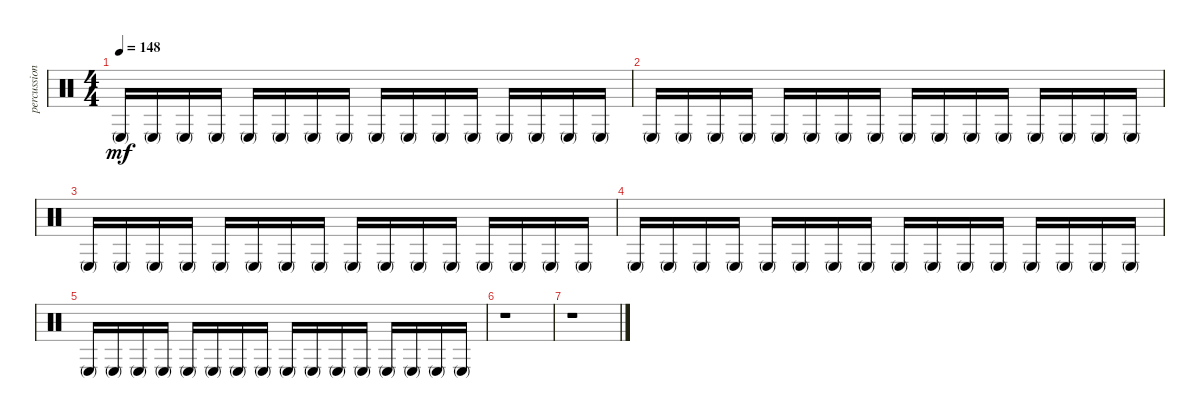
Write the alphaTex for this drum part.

\track ("percussion fx 2" "percussion") {instrument percussion}
\staff {score}
\articulation defaults
\ts (4 4)
\tempo 148
\clef neutral
\ks c "Conga low (mute)".16{dy mf} "Conga low (mute)".16 "Conga low (mute)".16 "Conga low (mute)".16 "Conga low (mute)".16 "Conga low (mute)".16 "Conga low (mute)".16 "Conga low (mute)".16 "Conga low (mute)".16 "Conga low (mute)".16 "Conga low (mute)".16 "Conga low (mute)".16 "Conga low (mute)".16 "Conga low (mute)".16 "Conga low (mute)".16 "Conga low (mute)".16
|
"Conga low (mute)".16 "Conga low (mute)".16 "Conga low (mute)".16 "Conga low (mute)".16 "Conga low (mute)".16 "Conga low (mute)".16 "Conga low (mute)".16 "Conga low (mute)".16 "Conga low (mute)".16 "Conga low (mute)".16 "Conga low (mute)".16 "Conga low (mute)".16 "Conga low (mute)".16 "Conga low (mute)".16 "Conga low (mute)".16 "Conga low (mute)".16 |
"Conga low (mute)".16 "Conga low (mute)".16 "Conga low (mute)".16 "Conga low (mute)".16 "Conga low (mute)".16 "Conga low (mute)".16 "Conga low (mute)".16 "Conga low (mute)".16 "Conga low (mute)".16 "Conga low (mute)".16 "Conga low (mute)".16 "Conga low (mute)".16 "Conga low (mute)".16 "Conga low (mute)".16 "Conga low (mute)".16 "Conga low (mute)".16 |
"Conga low (mute)".16 "Conga low (mute)".16 "Conga low (mute)".16 "Conga low (mute)".16 "Conga low (mute)".16 "Conga low (mute)".16 "Conga low (mute)".16 "Conga low (mute)".16 "Conga low (mute)".16 "Conga low (mute)".16 "Conga low (mute)".16 "Conga low (mute)".16 "Conga low (mute)".16 "Conga low (mute)".16 "Conga low (mute)".16 "Conga low (mute)".16 |
"Conga low (mute)".16 "Conga low (mute)".16 "Conga low (mute)".16 "Conga low (mute)".16 "Conga low (mute)".16 "Conga low (mute)".16 "Conga low (mute)".16 "Conga low (mute)".16 "Conga low (mute)".16 "Conga low (mute)".16 "Conga low (mute)".16 "Conga low (mute)".16 "Conga low (mute)".16 "Conga low (mute)".16 "Conga low (mute)".16 "Conga low (mute)".16 |
r.1 |
r.1
